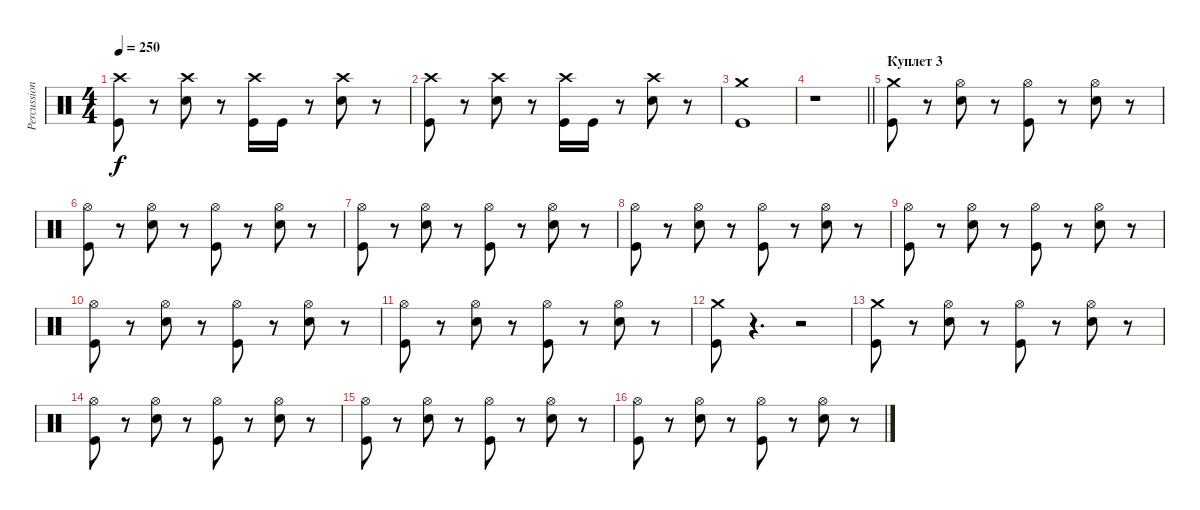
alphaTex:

\track ("Percussion" "Percussion") {instrument percussion}
\staff {score}
\articulation defaults
\ts (4 4)
\tempo 250
\clef neutral
\ks c
("Crash high (hit)" "Kick (hit)").8{dy f} r.8 ("Crash high (hit)" "Electric Snare (hit)").8 r.8 ("Crash high (hit)" "Kick (hit)").16 "Kick (hit)".16 r.8 ("Crash high (hit)" "Electric Snare (hit)").8 r.8 |
("Crash high (hit)" "Kick (hit)").8 r.8 ("Crash high (hit)" "Electric Snare (hit)").8 r.8 ("Crash high (hit)" "Kick (hit)").16 "Kick (hit)".16 r.8 ("Crash high (hit)" "Electric Snare (hit)").8 r.8 |
("Crash medium (hit)" "Kick (hit)").1 |
\barLineRight lightlight
r.1 |
\section ("" "Куплет 3")
("Crash medium (hit)" "Kick (hit)").8 r.8 ("Hi-Hat (open)" "Electric Snare (hit)").8 r.8 ("Hi-Hat (open)" "Kick (hit)").8 r.8 ("Hi-Hat (open)" "Electric Snare (hit)").8 r.8 |
("Hi-Hat (open)" "Kick (hit)").8 r.8 ("Hi-Hat (open)" "Electric Snare (hit)").8 r.8 ("Hi-Hat (open)" "Kick (hit)").8 r.8 ("Hi-Hat (open)" "Electric Snare (hit)").8 r.8 |
("Hi-Hat (open)" "Kick (hit)").8 r.8 ("Hi-Hat (open)" "Electric Snare (hit)").8 r.8 ("Hi-Hat (open)" "Kick (hit)").8 r.8 ("Hi-Hat (open)" "Electric Snare (hit)").8 r.8 |
("Hi-Hat (open)" "Kick (hit)").8 r.8 ("Hi-Hat (open)" "Electric Snare (hit)").8 r.8 ("Hi-Hat (open)" "Kick (hit)").8 r.8 ("Hi-Hat (open)" "Electric Snare (hit)").8 r.8 |
("Hi-Hat (open)" "Kick (hit)").8 r.8 ("Hi-Hat (open)" "Electric Snare (hit)").8 r.8 ("Hi-Hat (open)" "Kick (hit)").8 r.8 ("Hi-Hat (open)" "Electric Snare (hit)").8 r.8 |
("Hi-Hat (open)" "Kick (hit)").8 r.8 ("Hi-Hat (open)" "Electric Snare (hit)").8 r.8 ("Hi-Hat (open)" "Kick (hit)").8 r.8 ("Hi-Hat (open)" "Electric Snare (hit)").8 r.8 |
("Hi-Hat (open)" "Kick (hit)").8 r.8 ("Hi-Hat (open)" "Electric Snare (hit)").8 r.8 ("Hi-Hat (open)" "Kick (hit)").8 r.8 ("Hi-Hat (open)" "Electric Snare (hit)").8 r.8 |
("Crash medium (hit)" "Kick (hit)").8 r.4{d} r.2 |
("Crash medium (hit)" "Kick (hit)").8 r.8 ("Hi-Hat (open)" "Electric Snare (hit)").8 r.8 ("Hi-Hat (open)" "Kick (hit)").8 r.8 ("Hi-Hat (open)" "Electric Snare (hit)").8 r.8 |
("Hi-Hat (open)" "Kick (hit)").8 r.8 ("Hi-Hat (open)" "Electric Snare (hit)").8 r.8 ("Hi-Hat (open)" "Kick (hit)").8 r.8 ("Hi-Hat (open)" "Electric Snare (hit)").8 r.8 |
("Hi-Hat (open)" "Kick (hit)").8 r.8 ("Hi-Hat (open)" "Electric Snare (hit)").8 r.8 ("Hi-Hat (open)" "Kick (hit)").8 r.8 ("Hi-Hat (open)" "Electric Snare (hit)").8 r.8 |
("Hi-Hat (open)" "Kick (hit)").8 r.8 ("Hi-Hat (open)" "Electric Snare (hit)").8 r.8 ("Hi-Hat (open)" "Kick (hit)").8 r.8 ("Hi-Hat (open)" "Electric Snare (hit)").8 r.8
